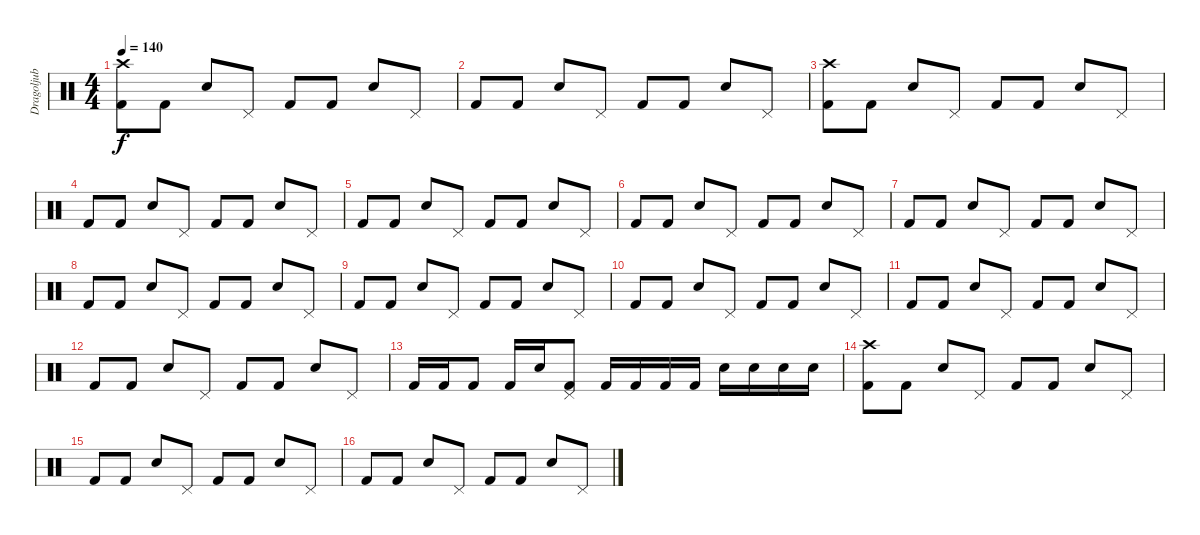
\track ("Dragoljub Djuricic" "Dragoljub ") {instrument percussion}
\staff {score}
\articulation defaults
\ts (4 4)
\tempo 140
\clef neutral
\ks c
("Kick (hit) 2" "Crash high (hit)").8{dy f} "Kick (hit) 2".8 "Snare (hit) 2".8 "Pedal Hi-Hat (hit)".8 "Kick (hit) 2".8 "Kick (hit) 2".8 "Snare (hit) 2".8 "Pedal Hi-Hat (hit)".8 |
"Kick (hit) 2".8 "Kick (hit) 2".8 "Snare (hit) 2".8 "Pedal Hi-Hat (hit)".8 "Kick (hit) 2".8 "Kick (hit) 2".8 "Snare (hit) 2".8 "Pedal Hi-Hat (hit)".8 |
("Kick (hit) 2" "Crash high (hit)").8 "Kick (hit) 2".8 "Snare (hit) 2".8 "Pedal Hi-Hat (hit)".8 "Kick (hit) 2".8 "Kick (hit) 2".8 "Snare (hit) 2".8 "Pedal Hi-Hat (hit)".8 |
"Kick (hit) 2".8 "Kick (hit) 2".8 "Snare (hit) 2".8 "Pedal Hi-Hat (hit)".8 "Kick (hit) 2".8 "Kick (hit) 2".8 "Snare (hit) 2".8 "Pedal Hi-Hat (hit)".8 |
"Kick (hit) 2".8 "Kick (hit) 2".8 "Snare (hit) 2".8 "Pedal Hi-Hat (hit)".8 "Kick (hit) 2".8 "Kick (hit) 2".8 "Snare (hit) 2".8 "Pedal Hi-Hat (hit)".8 |
"Kick (hit) 2".8 "Kick (hit) 2".8 "Snare (hit) 2".8 "Pedal Hi-Hat (hit)".8 "Kick (hit) 2".8 "Kick (hit) 2".8 "Snare (hit) 2".8 "Pedal Hi-Hat (hit)".8 |
"Kick (hit) 2".8 "Kick (hit) 2".8 "Snare (hit) 2".8 "Pedal Hi-Hat (hit)".8 "Kick (hit) 2".8 "Kick (hit) 2".8 "Snare (hit) 2".8 "Pedal Hi-Hat (hit)".8 |
"Kick (hit) 2".8 "Kick (hit) 2".8 "Snare (hit) 2".8 "Pedal Hi-Hat (hit)".8 "Kick (hit) 2".8 "Kick (hit) 2".8 "Snare (hit) 2".8 "Pedal Hi-Hat (hit)".8 |
"Kick (hit) 2".8 "Kick (hit) 2".8 "Snare (hit) 2".8 "Pedal Hi-Hat (hit)".8 "Kick (hit) 2".8 "Kick (hit) 2".8 "Snare (hit) 2".8 "Pedal Hi-Hat (hit)".8 |
"Kick (hit) 2".8 "Kick (hit) 2".8 "Snare (hit) 2".8 "Pedal Hi-Hat (hit)".8 "Kick (hit) 2".8 "Kick (hit) 2".8 "Snare (hit) 2".8 "Pedal Hi-Hat (hit)".8 |
"Kick (hit) 2".8 "Kick (hit) 2".8 "Snare (hit) 2".8 "Pedal Hi-Hat (hit)".8 "Kick (hit) 2".8 "Kick (hit) 2".8 "Snare (hit) 2".8 "Pedal Hi-Hat (hit)".8 |
"Kick (hit) 2".8 "Kick (hit) 2".8 "Snare (hit) 2".8 "Pedal Hi-Hat (hit)".8 "Kick (hit) 2".8 "Kick (hit) 2".8 "Snare (hit) 2".8 "Pedal Hi-Hat (hit)".8 |
"Kick (hit) 2".16 "Kick (hit) 2".16 "Kick (hit) 2".8 "Kick (hit) 2".16 "Snare (hit) 2".16 ("Kick (hit) 2" "Pedal Hi-Hat (hit)").8 "Kick (hit) 2".16 "Kick (hit) 2".16 "Kick (hit) 2".16 "Kick (hit) 2".16 "Snare (hit) 2".16 "Snare (hit) 2".16 "Snare (hit) 2".16 "Snare (hit) 2".16 |
("Kick (hit) 2" "Crash high (hit)").8 "Kick (hit) 2".8 "Snare (hit) 2".8 "Pedal Hi-Hat (hit)".8 "Kick (hit) 2".8 "Kick (hit) 2".8 "Snare (hit) 2".8 "Pedal Hi-Hat (hit)".8 |
"Kick (hit) 2".8 "Kick (hit) 2".8 "Snare (hit) 2".8 "Pedal Hi-Hat (hit)".8 "Kick (hit) 2".8 "Kick (hit) 2".8 "Snare (hit) 2".8 "Pedal Hi-Hat (hit)".8 |
"Kick (hit) 2".8 "Kick (hit) 2".8 "Snare (hit) 2".8 "Pedal Hi-Hat (hit)".8 "Kick (hit) 2".8 "Kick (hit) 2".8 "Snare (hit) 2".8 "Pedal Hi-Hat (hit)".8
